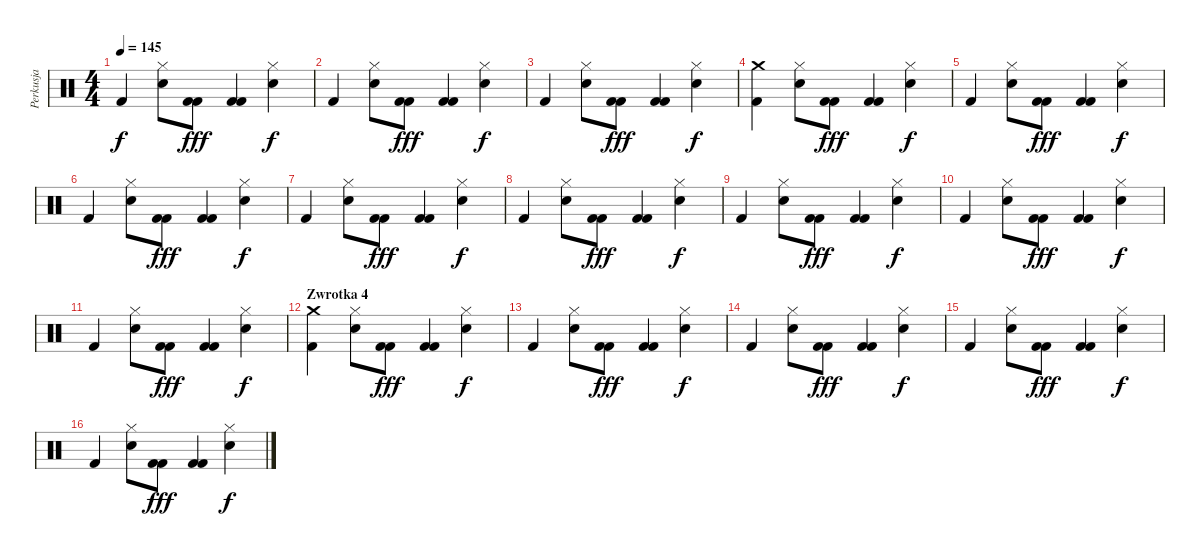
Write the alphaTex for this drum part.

\track ("Perkusja" "Perkusja") {instrument percussion}
\staff {score}
\articulation defaults
\ts (4 4)
\tempo 145
\clef neutral
\ks c "Kick (hit) 2".4{dy f}
("Hi-Hat (closed)" "Snare (hit) 2").8 ("Kick (hit) 2" "Kick (hit) 2").8{dy fff} ("Kick (hit) 2" "Kick (hit) 2").4 ("Hi-Hat (closed)" "Snare (hit) 2").4{dy f} |
"Kick (hit) 2".4 ("Hi-Hat (closed)" "Snare (hit) 2").8 ("Kick (hit) 2" "Kick (hit) 2").8{dy fff} ("Kick (hit) 2" "Kick (hit) 2").4 ("Hi-Hat (closed)" "Snare (hit) 2").4{dy f} |
"Kick (hit) 2".4 ("Hi-Hat (closed)" "Snare (hit) 2").8 ("Kick (hit) 2" "Kick (hit) 2").8{dy fff} ("Kick (hit) 2" "Kick (hit) 2").4 ("Hi-Hat (closed)" "Snare (hit) 2").4{dy f} |
("Kick (hit) 2" "Crash medium (hit)").4 ("Hi-Hat (closed)" "Snare (hit) 2").8 ("Kick (hit) 2" "Kick (hit) 2").8{dy fff} ("Kick (hit) 2" "Kick (hit) 2").4 ("Hi-Hat (closed)" "Snare (hit) 2").4{dy f} |
"Kick (hit) 2".4 ("Hi-Hat (closed)" "Snare (hit) 2").8 ("Kick (hit) 2" "Kick (hit) 2").8{dy fff} ("Kick (hit) 2" "Kick (hit) 2").4 ("Hi-Hat (closed)" "Snare (hit) 2").4{dy f} |
"Kick (hit) 2".4 ("Hi-Hat (closed)" "Snare (hit) 2").8 ("Kick (hit) 2" "Kick (hit) 2").8{dy fff} ("Kick (hit) 2" "Kick (hit) 2").4 ("Hi-Hat (closed)" "Snare (hit) 2").4{dy f} |
"Kick (hit) 2".4 ("Hi-Hat (closed)" "Snare (hit) 2").8 ("Kick (hit) 2" "Kick (hit) 2").8{dy fff} ("Kick (hit) 2" "Kick (hit) 2").4 ("Hi-Hat (closed)" "Snare (hit) 2").4{dy f} |
"Kick (hit) 2".4 ("Hi-Hat (closed)" "Snare (hit) 2").8 ("Kick (hit) 2" "Kick (hit) 2").8{dy fff} ("Kick (hit) 2" "Kick (hit) 2").4 ("Hi-Hat (closed)" "Snare (hit) 2").4{dy f} |
"Kick (hit) 2".4 ("Hi-Hat (closed)" "Snare (hit) 2").8 ("Kick (hit) 2" "Kick (hit) 2").8{dy fff} ("Kick (hit) 2" "Kick (hit) 2").4 ("Hi-Hat (closed)" "Snare (hit) 2").4{dy f} |
"Kick (hit) 2".4 ("Hi-Hat (closed)" "Snare (hit) 2").8 ("Kick (hit) 2" "Kick (hit) 2").8{dy fff} ("Kick (hit) 2" "Kick (hit) 2").4 ("Hi-Hat (closed)" "Snare (hit) 2").4{dy f} |
"Kick (hit) 2".4 ("Hi-Hat (closed)" "Snare (hit) 2").8 ("Kick (hit) 2" "Kick (hit) 2").8{dy fff} ("Kick (hit) 2" "Kick (hit) 2").4 ("Hi-Hat (closed)" "Snare (hit) 2").4{dy f} |
\section ("" "Zwrotka 4")
("Kick (hit) 2" "Crash medium (hit)").4 ("Hi-Hat (closed)" "Snare (hit) 2").8 ("Kick (hit) 2" "Kick (hit) 2").8{dy fff} ("Kick (hit) 2" "Kick (hit) 2").4 ("Hi-Hat (closed)" "Snare (hit) 2").4{dy f} |
"Kick (hit) 2".4 ("Hi-Hat (closed)" "Snare (hit) 2").8 ("Kick (hit) 2" "Kick (hit) 2").8{dy fff} ("Kick (hit) 2" "Kick (hit) 2").4 ("Hi-Hat (closed)" "Snare (hit) 2").4{dy f} |
"Kick (hit) 2".4 ("Hi-Hat (closed)" "Snare (hit) 2").8 ("Kick (hit) 2" "Kick (hit) 2").8{dy fff} ("Kick (hit) 2" "Kick (hit) 2").4 ("Hi-Hat (closed)" "Snare (hit) 2").4{dy f} |
"Kick (hit) 2".4 ("Hi-Hat (closed)" "Snare (hit) 2").8 ("Kick (hit) 2" "Kick (hit) 2").8{dy fff} ("Kick (hit) 2" "Kick (hit) 2").4 ("Hi-Hat (closed)" "Snare (hit) 2").4{dy f} |
"Kick (hit) 2".4 ("Hi-Hat (closed)" "Snare (hit) 2").8 ("Kick (hit) 2" "Kick (hit) 2").8{dy fff} ("Kick (hit) 2" "Kick (hit) 2").4 ("Hi-Hat (closed)" "Snare (hit) 2").4{dy f}
